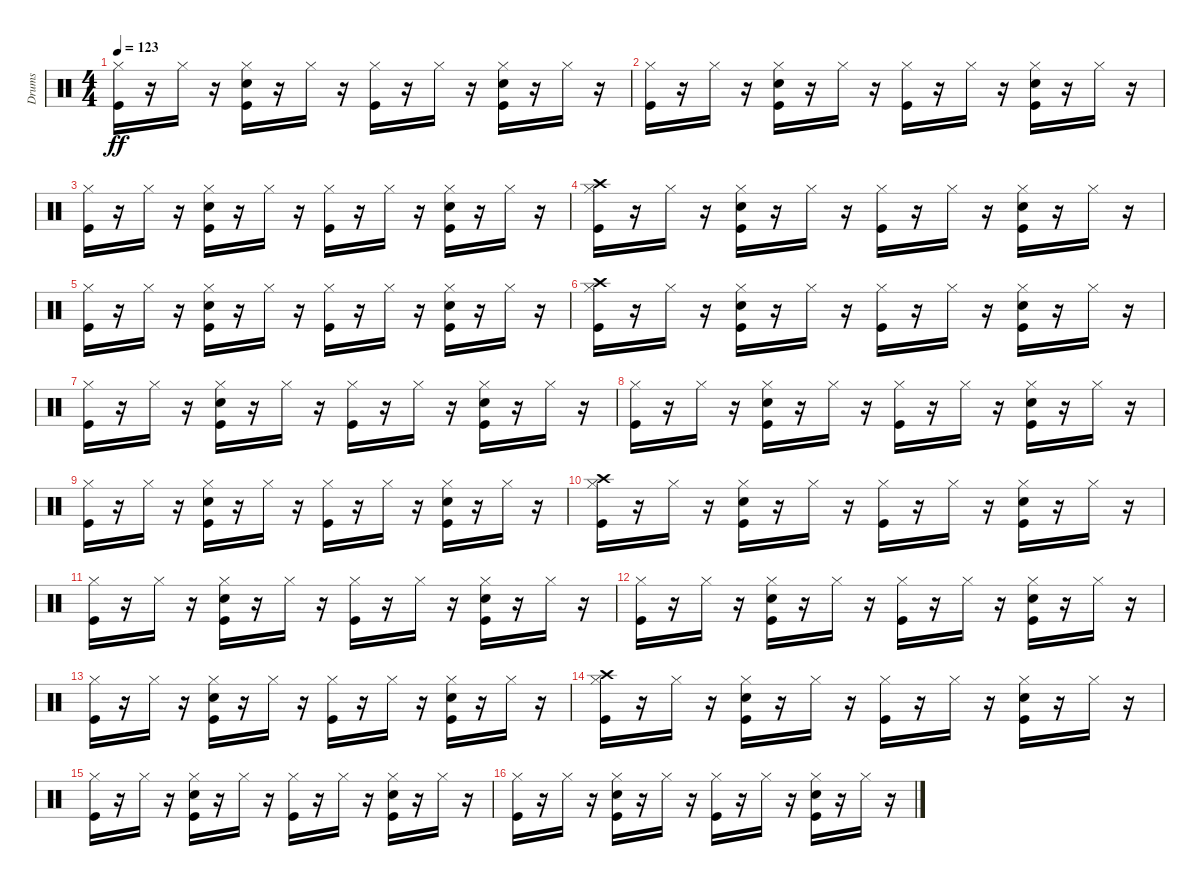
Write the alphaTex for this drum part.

\track ("Drums" "Drums") {instrument percussion}
\staff {score}
\articulation defaults
\ts (4 4)
\tempo 123
\clef neutral
\ks c
("Kick (hit)" "Hi-Hat (closed)").16{dy ff} r.16 "Hi-Hat (closed)".16 r.16 ("Kick (hit)" "Hi-Hat (closed)" "Snare (hit) 2").16 r.16 "Hi-Hat (closed)".16 r.16 ("Kick (hit)" "Hi-Hat (closed)").16 r.16 "Hi-Hat (closed)".16 r.16 ("Kick (hit)" "Snare (hit) 2" "Hi-Hat (closed)").16 r.16 "Hi-Hat (closed)".16 r.16 |
("Kick (hit)" "Hi-Hat (closed)").16 r.16 "Hi-Hat (closed)".16 r.16 ("Kick (hit)" "Hi-Hat (closed)" "Snare (hit) 2").16 r.16 "Hi-Hat (closed)".16 r.16 ("Kick (hit)" "Hi-Hat (closed)").16 r.16 "Hi-Hat (closed)".16 r.16 ("Kick (hit)" "Snare (hit) 2" "Hi-Hat (closed)").16 r.16 "Hi-Hat (closed)".16 r.16 |
("Kick (hit)" "Hi-Hat (closed)").16 r.16 "Hi-Hat (closed)".16 r.16 ("Kick (hit)" "Hi-Hat (closed)" "Snare (hit) 2").16 r.16 "Hi-Hat (closed)".16 r.16 ("Kick (hit)" "Hi-Hat (closed)").16 r.16 "Hi-Hat (closed)".16 r.16 ("Kick (hit)" "Snare (hit) 2" "Hi-Hat (closed)").16 r.16 "Hi-Hat (closed)".16 r.16 |
("Crash high (hit)" "Kick (hit)" "Hi-Hat (closed)").16 r.16 "Hi-Hat (closed)".16 r.16 ("Kick (hit)" "Hi-Hat (closed)" "Snare (hit) 2").16 r.16 "Hi-Hat (closed)".16 r.16 ("Kick (hit)" "Hi-Hat (closed)").16 r.16 "Hi-Hat (closed)".16 r.16 ("Kick (hit)" "Snare (hit) 2" "Hi-Hat (closed)").16 r.16 "Hi-Hat (closed)".16 r.16 |
("Kick (hit)" "Hi-Hat (closed)").16 r.16 "Hi-Hat (closed)".16 r.16 ("Kick (hit)" "Hi-Hat (closed)" "Snare (hit) 2").16 r.16 "Hi-Hat (closed)".16 r.16 ("Kick (hit)" "Hi-Hat (closed)").16 r.16 "Hi-Hat (closed)".16 r.16 ("Kick (hit)" "Snare (hit) 2" "Hi-Hat (closed)").16 r.16 "Hi-Hat (closed)".16 r.16 |
("Crash high (hit)" "Kick (hit)" "Hi-Hat (closed)").16 r.16 "Hi-Hat (closed)".16 r.16 ("Kick (hit)" "Hi-Hat (closed)" "Snare (hit) 2").16 r.16 "Hi-Hat (closed)".16 r.16 ("Kick (hit)" "Hi-Hat (closed)").16 r.16 "Hi-Hat (closed)".16 r.16 ("Kick (hit)" "Snare (hit) 2" "Hi-Hat (closed)").16 r.16 "Hi-Hat (closed)".16 r.16 |
("Kick (hit)" "Hi-Hat (closed)").16 r.16 "Hi-Hat (closed)".16 r.16 ("Kick (hit)" "Hi-Hat (closed)" "Snare (hit) 2").16 r.16 "Hi-Hat (closed)".16 r.16 ("Kick (hit)" "Hi-Hat (closed)").16 r.16 "Hi-Hat (closed)".16 r.16 ("Kick (hit)" "Snare (hit) 2" "Hi-Hat (closed)").16 r.16 "Hi-Hat (closed)".16 r.16 |
("Kick (hit)" "Hi-Hat (closed)").16 r.16 "Hi-Hat (closed)".16 r.16 ("Kick (hit)" "Hi-Hat (closed)" "Snare (hit) 2").16 r.16 "Hi-Hat (closed)".16 r.16 ("Kick (hit)" "Hi-Hat (closed)").16 r.16 "Hi-Hat (closed)".16 r.16 ("Kick (hit)" "Snare (hit) 2" "Hi-Hat (closed)").16 r.16 "Hi-Hat (closed)".16 r.16 |
("Kick (hit)" "Hi-Hat (closed)").16 r.16 "Hi-Hat (closed)".16 r.16 ("Kick (hit)" "Hi-Hat (closed)" "Snare (hit) 2").16 r.16 "Hi-Hat (closed)".16 r.16 ("Kick (hit)" "Hi-Hat (closed)").16 r.16 "Hi-Hat (closed)".16 r.16 ("Kick (hit)" "Snare (hit) 2" "Hi-Hat (closed)").16 r.16 "Hi-Hat (closed)".16 r.16 |
("Crash high (hit)" "Kick (hit)" "Hi-Hat (closed)").16 r.16 "Hi-Hat (closed)".16 r.16 ("Kick (hit)" "Hi-Hat (closed)" "Snare (hit) 2").16 r.16 "Hi-Hat (closed)".16 r.16 ("Kick (hit)" "Hi-Hat (closed)").16 r.16 "Hi-Hat (closed)".16 r.16 ("Kick (hit)" "Snare (hit) 2" "Hi-Hat (closed)").16 r.16 "Hi-Hat (closed)".16 r.16 |
("Kick (hit)" "Hi-Hat (closed)").16 r.16 "Hi-Hat (closed)".16 r.16 ("Kick (hit)" "Hi-Hat (closed)" "Snare (hit) 2").16 r.16 "Hi-Hat (closed)".16 r.16 ("Kick (hit)" "Hi-Hat (closed)").16 r.16 "Hi-Hat (closed)".16 r.16 ("Kick (hit)" "Snare (hit) 2" "Hi-Hat (closed)").16 r.16 "Hi-Hat (closed)".16 r.16 |
("Kick (hit)" "Hi-Hat (closed)").16 r.16 "Hi-Hat (closed)".16 r.16 ("Kick (hit)" "Hi-Hat (closed)" "Snare (hit) 2").16 r.16 "Hi-Hat (closed)".16 r.16 ("Kick (hit)" "Hi-Hat (closed)").16 r.16 "Hi-Hat (closed)".16 r.16 ("Kick (hit)" "Snare (hit) 2" "Hi-Hat (closed)").16 r.16 "Hi-Hat (closed)".16 r.16 |
("Kick (hit)" "Hi-Hat (closed)").16 r.16 "Hi-Hat (closed)".16 r.16 ("Kick (hit)" "Hi-Hat (closed)" "Snare (hit) 2").16 r.16 "Hi-Hat (closed)".16 r.16 ("Kick (hit)" "Hi-Hat (closed)").16 r.16 "Hi-Hat (closed)".16 r.16 ("Kick (hit)" "Snare (hit) 2" "Hi-Hat (closed)").16 r.16 "Hi-Hat (closed)".16 r.16 |
("Crash high (hit)" "Kick (hit)" "Hi-Hat (closed)").16 r.16 "Hi-Hat (closed)".16 r.16 ("Kick (hit)" "Hi-Hat (closed)" "Snare (hit) 2").16 r.16 "Hi-Hat (closed)".16 r.16 ("Kick (hit)" "Hi-Hat (closed)").16 r.16 "Hi-Hat (closed)".16 r.16 ("Kick (hit)" "Snare (hit) 2" "Hi-Hat (closed)").16 r.16 "Hi-Hat (closed)".16 r.16 |
("Kick (hit)" "Hi-Hat (closed)").16 r.16 "Hi-Hat (closed)".16 r.16 ("Kick (hit)" "Hi-Hat (closed)" "Snare (hit) 2").16 r.16 "Hi-Hat (closed)".16 r.16 ("Kick (hit)" "Hi-Hat (closed)").16 r.16 "Hi-Hat (closed)".16 r.16 ("Kick (hit)" "Snare (hit) 2" "Hi-Hat (closed)").16 r.16 "Hi-Hat (closed)".16 r.16 |
("Kick (hit)" "Hi-Hat (closed)").16 r.16 "Hi-Hat (closed)".16 r.16 ("Kick (hit)" "Hi-Hat (closed)" "Snare (hit) 2").16 r.16 "Hi-Hat (closed)".16 r.16 ("Kick (hit)" "Hi-Hat (closed)").16 r.16 "Hi-Hat (closed)".16 r.16 ("Kick (hit)" "Snare (hit) 2" "Hi-Hat (closed)").16 r.16 "Hi-Hat (closed)".16 r.16
